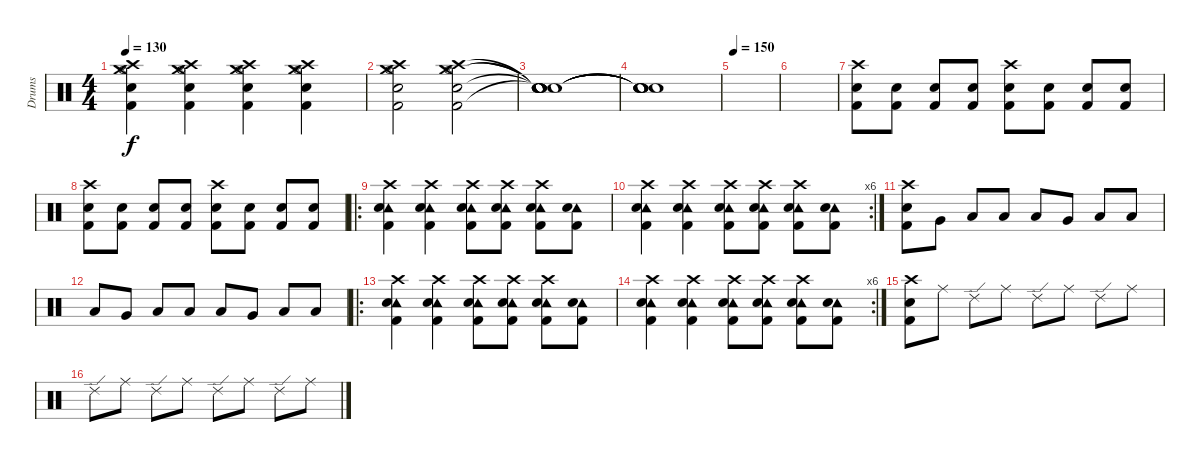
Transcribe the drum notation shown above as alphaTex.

\track ("Drums" "Drums") {instrument percussion}
\staff {score}
\articulation defaults
\ts (4 4)
\tempo 130
\clef neutral
\ks c
("Hi-Hat (open)" "Crash medium (hit)" "Crash high (hit)" "Snare (hit) 2" "Kick (hit) 2").4{dy f} ("Hi-Hat (open)" "Crash medium (hit)" "Crash high (hit)" "Snare (hit) 2" "Kick (hit) 2").4 ("Hi-Hat (open)" "Crash medium (hit)" "Crash high (hit)" "Snare (hit) 2" "Kick (hit) 2").4 ("Hi-Hat (open)" "Crash medium (hit)" "Crash high (hit)" "Snare (hit) 2" "Kick (hit) 2").4 |
("Hi-Hat (open)" "Crash medium (hit)" "Crash high (hit)" "Snare (hit) 2" "Kick (hit) 2").2 ("Hi-Hat (open)" "Crash medium (hit)" "Crash high (hit)" "Snare (hit) 2" "Kick (hit) 2").2 |
("Snare (hit)"{t} "Snare (hit)"{t} "Snare (hit)"{t} "Snare (hit)"{t} "Snare (hit)"{t} "Snare (hit)").1 |
("Snare (hit)"{t} "Snare (hit)"{t} "Snare (hit)"{t} "Snare (hit)"{t} "Snare (hit)"{t}).1 |
\tempo 150
|
|
("Crash high (hit)" "Snare (hit) 2" "Kick (hit) 2").8 ("Snare (hit) 2" "Kick (hit) 2").8 ("Snare (hit) 2" "Kick (hit) 2").8 ("Snare (hit) 2" "Kick (hit) 2").8 ("Crash high (hit)" "Snare (hit) 2" "Kick (hit) 2").8 ("Snare (hit) 2" "Kick (hit) 2").8 ("Snare (hit) 2" "Kick (hit) 2").8 ("Snare (hit) 2" "Kick (hit) 2").8 |
("Crash high (hit)" "Snare (hit) 2" "Kick (hit) 2").8 ("Snare (hit) 2" "Kick (hit) 2").8 ("Snare (hit) 2" "Kick (hit) 2").8 ("Snare (hit) 2" "Kick (hit) 2").8 ("Crash high (hit)" "Snare (hit) 2" "Kick (hit) 2").8 ("Snare (hit) 2" "Kick (hit) 2").8 ("Snare (hit) 2" "Kick (hit) 2").8 ("Snare (hit) 2" "Kick (hit) 2").8 |
\ro
("Tambourine (hit)" "Crash high (hit)" "Snare (hit) 2" "Kick (hit) 2").4 ("Tambourine (hit)" "Crash high (hit)" "Snare (hit) 2" "Kick (hit) 2").4 ("Tambourine (hit)" "Crash high (hit)" "Snare (hit) 2" "Kick (hit) 2").8 ("Tambourine (hit)" "Crash high (hit)" "Snare (hit) 2" "Kick (hit) 2").8 ("Tambourine (hit)" "Crash high (hit)" "Snare (hit) 2" "Kick (hit) 2").8 ("Tambourine (hit)" "Snare (hit) 2" "Kick (hit) 2").8 |
\rc 6
("Tambourine (hit)" "Crash high (hit)" "Snare (hit) 2" "Kick (hit) 2").4 ("Tambourine (hit)" "Crash high (hit)" "Snare (hit) 2" "Kick (hit) 2").4 ("Tambourine (hit)" "Crash high (hit)" "Snare (hit) 2" "Kick (hit) 2").8 ("Tambourine (hit)" "Crash high (hit)" "Snare (hit) 2" "Kick (hit) 2").8 ("Tambourine (hit)" "Crash high (hit)" "Snare (hit) 2" "Kick (hit) 2").8 ("Tambourine (hit)" "Snare (hit) 2" "Kick (hit) 2").8 |
("Crash high (hit)" "Snare (hit) 2" "Kick (hit) 2").8 "Very Low Tom (hit)".8 "Low Floor Tom (hit)".8 "Low Floor Tom (hit)".8 "Low Floor Tom (hit)".8 "Very Low Tom (hit)".8 "Low Floor Tom (hit)".8 "Low Floor Tom (hit)".8 |
"Low Floor Tom (hit)".8 "Very Low Tom (hit)".8 "Low Floor Tom (hit)".8 "Low Floor Tom (hit)".8 "Low Floor Tom (hit)".8 "Very Low Tom (hit)".8 "Low Floor Tom (hit)".8 "Low Floor Tom (hit)".8 |
\ro
("Tambourine (hit)" "Crash high (hit)" "Snare (hit) 2" "Kick (hit) 2").4 ("Tambourine (hit)" "Crash high (hit)" "Snare (hit) 2" "Kick (hit) 2").4 ("Tambourine (hit)" "Crash high (hit)" "Snare (hit) 2" "Kick (hit) 2").8 ("Tambourine (hit)" "Crash high (hit)" "Snare (hit) 2" "Kick (hit) 2").8 ("Tambourine (hit)" "Crash high (hit)" "Snare (hit) 2" "Kick (hit) 2").8 ("Tambourine (hit)" "Snare (hit) 2" "Kick (hit) 2").8 |
\rc 6
("Tambourine (hit)" "Crash high (hit)" "Snare (hit) 2" "Kick (hit) 2").4 ("Tambourine (hit)" "Crash high (hit)" "Snare (hit) 2" "Kick (hit) 2").4 ("Tambourine (hit)" "Crash high (hit)" "Snare (hit) 2" "Kick (hit) 2").8 ("Tambourine (hit)" "Crash high (hit)" "Snare (hit) 2" "Kick (hit) 2").8 ("Tambourine (hit)" "Crash high (hit)" "Snare (hit) 2" "Kick (hit) 2").8 ("Tambourine (hit)" "Snare (hit) 2" "Kick (hit) 2").8 |
("Crash high (hit)" "Snare (hit) 2" "Kick (hit) 2").8 "Ride (middle)".8 "Ride (edge) 2".8 "Ride (middle)".8 "Ride (edge) 2".8 "Ride (middle)".8 "Ride (edge) 2".8 "Ride (middle)".8 |
"Ride (edge) 2".8 "Ride (middle)".8 "Ride (edge) 2".8 "Ride (middle)".8 "Ride (edge) 2".8 "Ride (middle)".8 "Ride (edge) 2".8 "Ride (middle)".8
